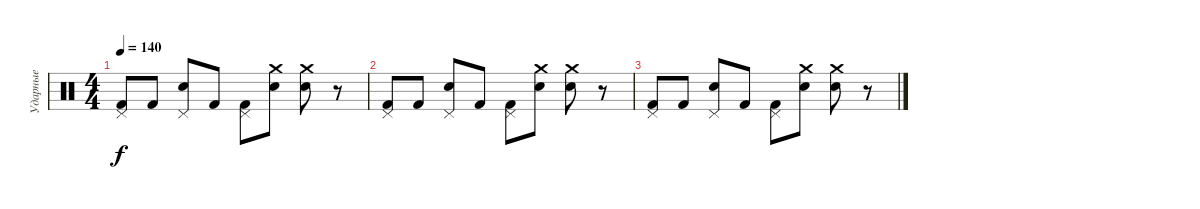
\track ("Ударные" "Ударные") {instrument percussion}
\staff {score}
\articulation defaults
\ts (4 4)
\tempo 140
\clef neutral
\ks c
("Pedal Hi-Hat (hit)" "Kick (hit) 2").8{dy f} "Kick (hit) 2".8 ("Pedal Hi-Hat (hit)" "Snare (hit) 2").8 "Kick (hit) 2".8 ("Pedal Hi-Hat (hit)" "Kick (hit) 2").8 ("Crash medium (hit)" "Snare (hit) 2").8 ("Crash medium (hit)" "Snare (hit) 2").8 r.8 |
("Pedal Hi-Hat (hit)" "Kick (hit) 2").8 "Kick (hit) 2".8 ("Pedal Hi-Hat (hit)" "Snare (hit) 2").8 "Kick (hit) 2".8 ("Pedal Hi-Hat (hit)" "Kick (hit) 2").8 ("Crash medium (hit)" "Snare (hit) 2").8 ("Crash medium (hit)" "Snare (hit) 2").8 r.8 |
("Pedal Hi-Hat (hit)" "Kick (hit) 2").8 "Kick (hit) 2".8 ("Pedal Hi-Hat (hit)" "Snare (hit) 2").8 "Kick (hit) 2".8 ("Pedal Hi-Hat (hit)" "Kick (hit) 2").8 ("Crash medium (hit)" "Snare (hit) 2").8 ("Crash medium (hit)" "Snare (hit) 2").8 r.8
